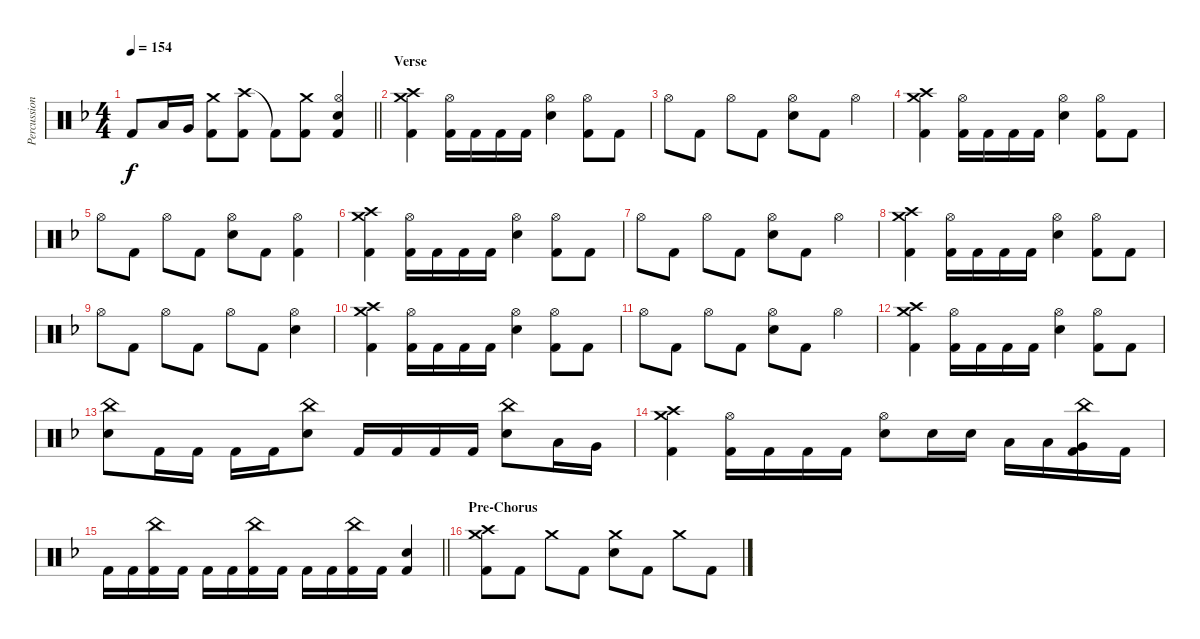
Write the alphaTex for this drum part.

\track ("Percussion" "Percussion") {instrument percussion}
\staff {score}
\articulation defaults
\ts (4 4)
\tempo 154
\clef neutral
\barLineRight lightlight
\ks dminor "Kick (hit) 2"{t}.8{dy f} "Low Tom (hit)".16 "Very Low Tom (hit)".16
("Crash medium (hit)" "Kick (hit) 2").8 ("Crash high (hit)" "Kick (hit) 2").8 "Kick (hit) 2"{t}.8 ("Crash medium (hit)" "Kick (hit) 2").8 ("Hi-Hat (open)" "Electric Snare (hit)" "Kick (hit) 2").4 |
\section ("" "Verse")
("Crash medium (hit)" "Crash high (hit)" "Kick (hit) 2").4 ("Hi-Hat (open)" "Kick (hit) 2").16 "Kick (hit) 2".16 "Kick (hit) 2".16 "Kick (hit) 2".16 ("Hi-Hat (open)" "Electric Snare (hit)").4 ("Hi-Hat (open)" "Kick (hit) 2").8 "Kick (hit) 2".8 |
"Hi-Hat (open)".8 "Kick (hit) 2".8 "Hi-Hat (open)".8 "Kick (hit) 2".8 ("Hi-Hat (open)" "Electric Snare (hit)").8 "Kick (hit) 2".8 "Hi-Hat (open)".4 |
("Crash medium (hit)" "Crash high (hit)" "Kick (hit) 2").4 ("Hi-Hat (open)" "Kick (hit) 2").16 "Kick (hit) 2".16 "Kick (hit) 2".16 "Kick (hit) 2".16 ("Hi-Hat (open)" "Electric Snare (hit)").4 ("Hi-Hat (open)" "Kick (hit) 2").8 "Kick (hit) 2".8 |
"Hi-Hat (open)".8 "Kick (hit) 2".8 "Hi-Hat (open)".8 "Kick (hit) 2".8 ("Hi-Hat (open)" "Electric Snare (hit)").8 "Kick (hit) 2".8 ("Hi-Hat (open)" "Kick (hit) 2").4 |
("Crash medium (hit)" "Crash high (hit)" "Kick (hit) 2").4 ("Hi-Hat (open)" "Kick (hit) 2").16 "Kick (hit) 2".16 "Kick (hit) 2".16 "Kick (hit) 2".16 ("Hi-Hat (open)" "Electric Snare (hit)").4 ("Hi-Hat (open)" "Kick (hit) 2").8 "Kick (hit) 2".8 |
"Hi-Hat (open)".8 "Kick (hit) 2".8 "Hi-Hat (open)".8 "Kick (hit) 2".8 ("Hi-Hat (open)" "Electric Snare (hit)").8 "Kick (hit) 2".8 "Hi-Hat (open)".4 |
("Crash medium (hit)" "Crash high (hit)" "Kick (hit) 2").4 ("Hi-Hat (open)" "Kick (hit) 2").16 "Kick (hit) 2".16 "Kick (hit) 2".16 "Kick (hit) 2".16 ("Hi-Hat (open)" "Electric Snare (hit)").4 ("Hi-Hat (open)" "Kick (hit) 2").8 "Kick (hit) 2".8 |
"Hi-Hat (open)".8 "Kick (hit) 2".8 "Hi-Hat (open)".8 "Kick (hit) 2".8 "Hi-Hat (open)".8 "Kick (hit) 2".8 ("Hi-Hat (open)" "Electric Snare (hit)").4 |
("Crash medium (hit)" "Crash high (hit)" "Kick (hit) 2").4 ("Hi-Hat (open)" "Kick (hit) 2").16 "Kick (hit) 2".16 "Kick (hit) 2".16 "Kick (hit) 2".16 ("Hi-Hat (open)" "Electric Snare (hit)").4 ("Hi-Hat (open)" "Kick (hit) 2").8 "Kick (hit) 2".8 |
"Hi-Hat (open)".8 "Kick (hit) 2".8 "Hi-Hat (open)".8 "Kick (hit) 2".8 ("Hi-Hat (open)" "Electric Snare (hit)").8 "Kick (hit) 2".8 "Hi-Hat (open)".4 |
("Crash medium (hit)" "Crash high (hit)" "Kick (hit) 2").4 ("Hi-Hat (open)" "Kick (hit) 2").16 "Kick (hit) 2".16 "Kick (hit) 2".16 "Kick (hit) 2".16 ("Hi-Hat (open)" "Electric Snare (hit)").4 ("Hi-Hat (open)" "Kick (hit) 2").8 "Kick (hit) 2".8 |
("China (hit)" "Electric Snare (hit)").8 "Kick (hit) 2".16 "Kick (hit) 2".16 "Kick (hit) 2".16 "Kick (hit) 2".16 ("China (hit)" "Electric Snare (hit)").8 "Kick (hit) 2".16 "Kick (hit) 2".16 "Kick (hit) 2".16 "Kick (hit) 2".16 ("China (hit)" "Electric Snare (hit)").8 "Low Tom (hit)".16 "Very Low Tom (hit)".16 |
("Crash medium (hit)" "Crash high (hit)" "Kick (hit) 2").4 ("Hi-Hat (open)" "Kick (hit) 2").16 "Kick (hit) 2".16 "Kick (hit) 2".16 "Kick (hit) 2".16 ("Hi-Hat (open)" "Electric Snare (hit)").8 "Electric Snare (hit)".16 "Electric Snare (hit)".16 "Low Tom (hit)".16 "Low Tom (hit)".16 ("China (hit)" "Very Low Tom (hit)" "Kick (hit) 2").16 "Kick (hit) 2".16 |
\barLineRight lightlight "Kick (hit) 2".16 "Kick (hit) 2".16
("China (hit)" "Kick (hit) 2").16 "Kick (hit) 2".16 "Kick (hit) 2".16 "Kick (hit) 2".16 ("China (hit)" "Kick (hit) 2").16 "Kick (hit) 2".16 "Kick (hit) 2".16 "Kick (hit) 2".16 ("China (hit)" "Kick (hit) 2").16 "Kick (hit) 2".16 ("Electric Snare (hit)" "Kick (hit) 2").4 |
\section ("" "Pre-Chorus")
("Crash medium (hit)" "Crash high (hit)" "Kick (hit) 2").8 "Kick (hit) 2".8 "Crash medium (hit)".8 "Kick (hit) 2".8 ("Crash medium (hit)" "Electric Snare (hit)").8 "Kick (hit) 2".8 "Crash medium (hit)".8 "Kick (hit) 2".8
